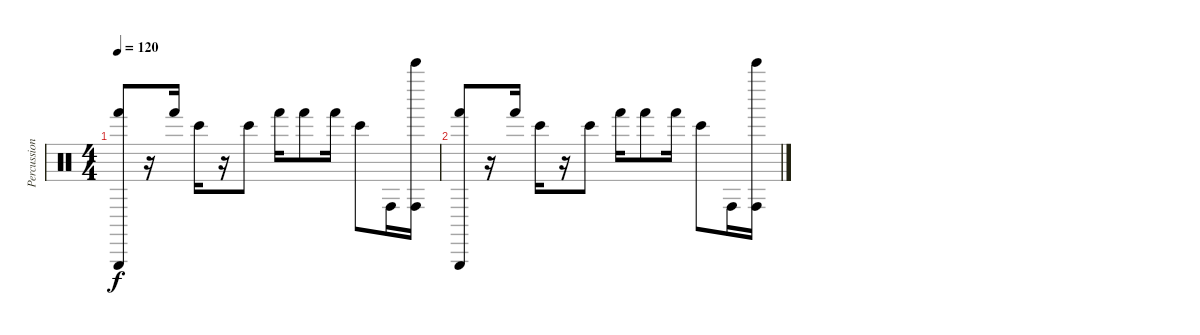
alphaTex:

\track ("Percussions" "Percussion") {instrument percussion}
\staff {score}
\articulation defaults
\ts (4 4)
\tempo 120
\clef neutral
\ks c
("Triangle (hit)" "Hand (hit)").8{dy f} r.16 "Hand (hit)".16 "Bongo High (hit)".16 r.16 "Bongo High (hit)".8 "Hand (hit)".16 "Hand (hit)".8 "Hand (hit)".16 "Bongo High (hit)".8 "Conga high (hit)".16 ("Conga high (hit)" "Bell Tree (hit)").16 |
("Triangle (hit)" "Hand (hit)").8 r.16 "Hand (hit)".16 "Bongo High (hit)".16 r.16 "Bongo High (hit)".8 "Hand (hit)".16 "Hand (hit)".8 "Hand (hit)".16 "Bongo High (hit)".8 "Conga high (hit)".16 ("Conga high (hit)" "Bell Tree (hit)").16
